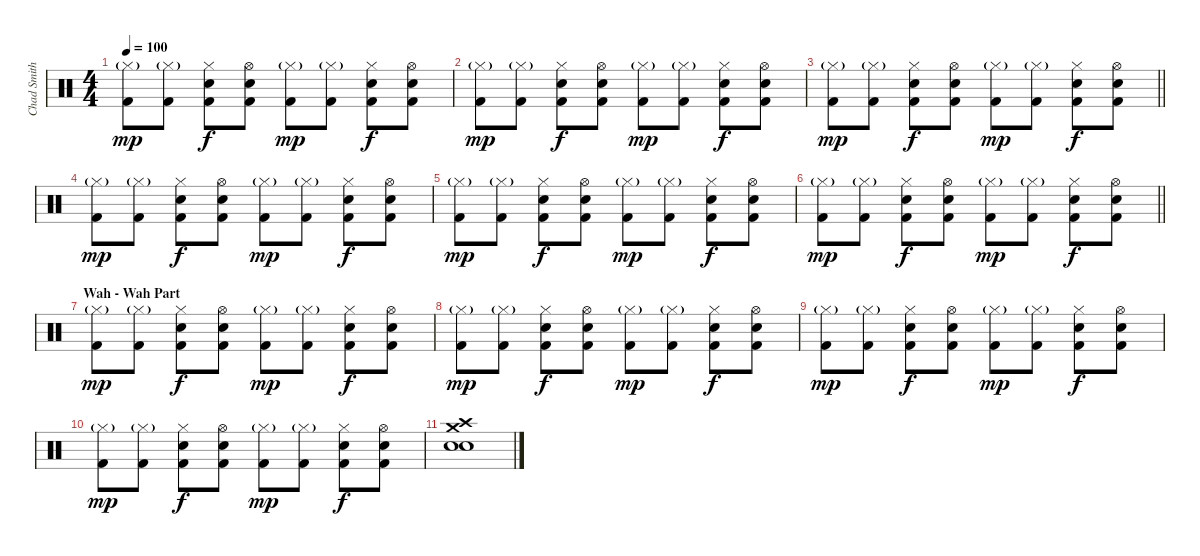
\track ("Chad Smith - Drums" "Chad Smith") {instrument percussion}
\staff {score}
\articulation defaults
\ts (4 4)
\tempo 100
\clef neutral
\ks c
("Hi-Hat (closed)"{g} "Kick (hit) 2").8{dy mp} ("Hi-Hat (closed)"{g} "Kick (hit) 2").8 ("Hi-Hat (closed)" "Electric Snare (hit)" "Kick (hit) 2").8{dy f} ("Hi-Hat (open)" "Electric Snare (hit)" "Kick (hit) 2").8 ("Hi-Hat (closed)"{g} "Kick (hit) 2").8{dy mp} ("Hi-Hat (closed)"{g} "Kick (hit) 2").8 ("Hi-Hat (closed)" "Electric Snare (hit)" "Kick (hit) 2").8{dy f} ("Hi-Hat (open)" "Electric Snare (hit)" "Kick (hit) 2").8 |
("Hi-Hat (closed)"{g} "Kick (hit) 2").8{dy mp} ("Hi-Hat (closed)"{g} "Kick (hit) 2").8 ("Hi-Hat (closed)" "Electric Snare (hit)" "Kick (hit) 2").8{dy f} ("Hi-Hat (open)" "Electric Snare (hit)" "Kick (hit) 2").8 ("Hi-Hat (closed)"{g} "Kick (hit) 2").8{dy mp} ("Hi-Hat (closed)"{g} "Kick (hit) 2").8 ("Hi-Hat (closed)" "Electric Snare (hit)" "Kick (hit) 2").8{dy f} ("Hi-Hat (open)" "Electric Snare (hit)" "Kick (hit) 2").8 |
\barLineRight lightlight
("Hi-Hat (closed)"{g} "Kick (hit) 2").8{dy mp} ("Hi-Hat (closed)"{g} "Kick (hit) 2").8 ("Hi-Hat (closed)" "Electric Snare (hit)" "Kick (hit) 2").8{dy f} ("Hi-Hat (open)" "Electric Snare (hit)" "Kick (hit) 2").8 ("Hi-Hat (closed)"{g} "Kick (hit) 2").8{dy mp} ("Hi-Hat (closed)"{g} "Kick (hit) 2").8 ("Hi-Hat (closed)" "Electric Snare (hit)" "Kick (hit) 2").8{dy f} ("Hi-Hat (open)" "Electric Snare (hit)" "Kick (hit) 2").8 |
("Hi-Hat (closed)"{g} "Kick (hit) 2").8{dy mp} ("Hi-Hat (closed)"{g} "Kick (hit) 2").8 ("Hi-Hat (closed)" "Electric Snare (hit)" "Kick (hit) 2").8{dy f} ("Hi-Hat (open)" "Electric Snare (hit)" "Kick (hit) 2").8 ("Hi-Hat (closed)"{g} "Kick (hit) 2").8{dy mp} ("Hi-Hat (closed)"{g} "Kick (hit) 2").8 ("Hi-Hat (closed)" "Electric Snare (hit)" "Kick (hit) 2").8{dy f} ("Hi-Hat (open)" "Electric Snare (hit)" "Kick (hit) 2").8 |
("Hi-Hat (closed)"{g} "Kick (hit) 2").8{dy mp} ("Hi-Hat (closed)"{g} "Kick (hit) 2").8 ("Hi-Hat (closed)" "Electric Snare (hit)" "Kick (hit) 2").8{dy f} ("Hi-Hat (open)" "Electric Snare (hit)" "Kick (hit) 2").8 ("Hi-Hat (closed)"{g} "Kick (hit) 2").8{dy mp} ("Hi-Hat (closed)"{g} "Kick (hit) 2").8 ("Hi-Hat (closed)" "Electric Snare (hit)" "Kick (hit) 2").8{dy f} ("Hi-Hat (open)" "Electric Snare (hit)" "Kick (hit) 2").8 |
\barLineRight lightlight
("Hi-Hat (closed)"{g} "Kick (hit) 2").8{dy mp} ("Hi-Hat (closed)"{g} "Kick (hit) 2").8 ("Hi-Hat (closed)" "Electric Snare (hit)" "Kick (hit) 2").8{dy f} ("Hi-Hat (open)" "Electric Snare (hit)" "Kick (hit) 2").8 ("Hi-Hat (closed)"{g} "Kick (hit) 2").8{dy mp} ("Hi-Hat (closed)"{g} "Kick (hit) 2").8 ("Hi-Hat (closed)" "Electric Snare (hit)" "Kick (hit) 2").8{dy f} ("Hi-Hat (open)" "Electric Snare (hit)" "Kick (hit) 2").8 |
\section ("" "Wah - Wah Part")
("Hi-Hat (closed)"{g} "Kick (hit) 2").8{dy mp} ("Hi-Hat (closed)"{g} "Kick (hit) 2").8 ("Hi-Hat (closed)" "Electric Snare (hit)" "Kick (hit) 2").8{dy f} ("Hi-Hat (open)" "Electric Snare (hit)" "Kick (hit) 2").8 ("Hi-Hat (closed)"{g} "Kick (hit) 2").8{dy mp} ("Hi-Hat (closed)"{g} "Kick (hit) 2").8 ("Hi-Hat (closed)" "Electric Snare (hit)" "Kick (hit) 2").8{dy f} ("Hi-Hat (open)" "Electric Snare (hit)" "Kick (hit) 2").8 |
("Hi-Hat (closed)"{g} "Kick (hit) 2").8{dy mp} ("Hi-Hat (closed)"{g} "Kick (hit) 2").8 ("Hi-Hat (closed)" "Electric Snare (hit)" "Kick (hit) 2").8{dy f} ("Hi-Hat (open)" "Electric Snare (hit)" "Kick (hit) 2").8 ("Hi-Hat (closed)"{g} "Kick (hit) 2").8{dy mp} ("Hi-Hat (closed)"{g} "Kick (hit) 2").8 ("Hi-Hat (closed)" "Electric Snare (hit)" "Kick (hit) 2").8{dy f} ("Hi-Hat (open)" "Electric Snare (hit)" "Kick (hit) 2").8 |
("Hi-Hat (closed)"{g} "Kick (hit) 2").8{dy mp} ("Hi-Hat (closed)"{g} "Kick (hit) 2").8 ("Hi-Hat (closed)" "Electric Snare (hit)" "Kick (hit) 2").8{dy f} ("Hi-Hat (open)" "Electric Snare (hit)" "Kick (hit) 2").8 ("Hi-Hat (closed)"{g} "Kick (hit) 2").8{dy mp} ("Hi-Hat (closed)"{g} "Kick (hit) 2").8 ("Hi-Hat (closed)" "Electric Snare (hit)" "Kick (hit) 2").8{dy f} ("Hi-Hat (open)" "Electric Snare (hit)" "Kick (hit) 2").8 |
("Hi-Hat (closed)"{g} "Kick (hit) 2").8{dy mp} ("Hi-Hat (closed)"{g} "Kick (hit) 2").8 ("Hi-Hat (closed)" "Electric Snare (hit)" "Kick (hit) 2").8{dy f} ("Hi-Hat (open)" "Electric Snare (hit)" "Kick (hit) 2").8 ("Hi-Hat (closed)"{g} "Kick (hit) 2").8{dy mp} ("Hi-Hat (closed)"{g} "Kick (hit) 2").8 ("Hi-Hat (closed)" "Electric Snare (hit)" "Kick (hit) 2").8{dy f} ("Hi-Hat (open)" "Electric Snare (hit)" "Kick (hit) 2").8 |
("Crash high (hit)" "Crash medium (hit)" "Electric Snare (hit)" "Snare (hit) 2").1
